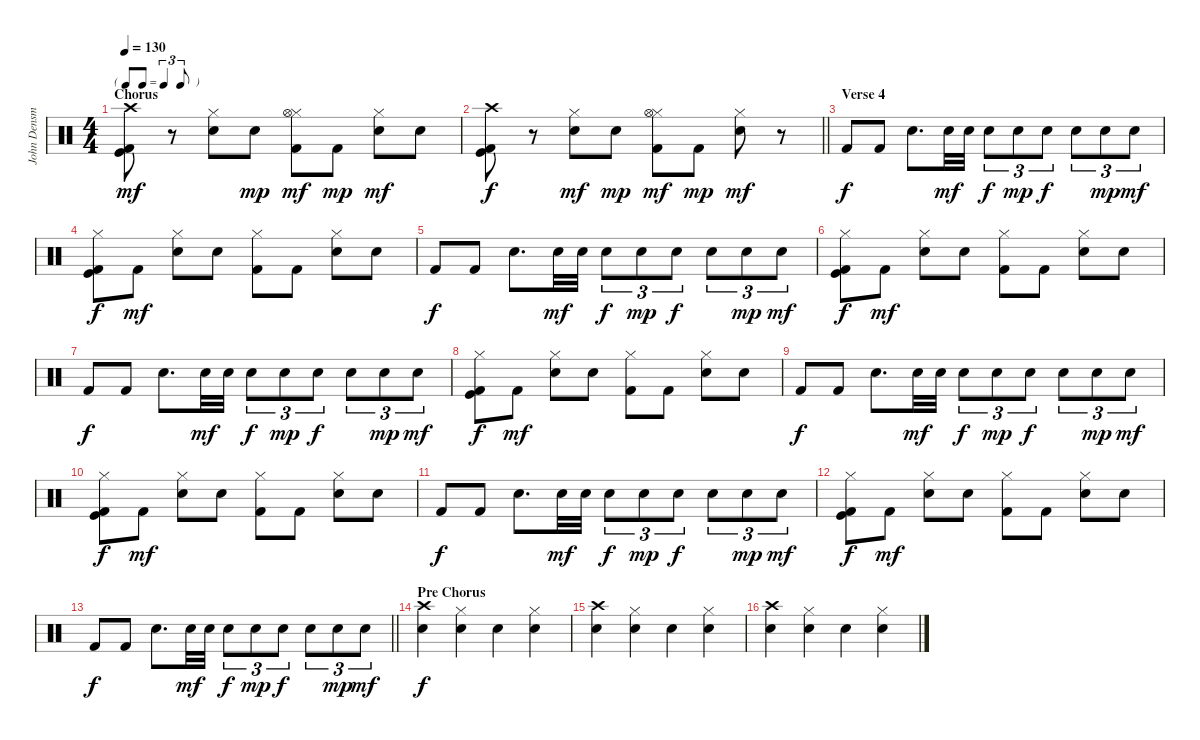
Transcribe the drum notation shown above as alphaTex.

\track ("John Densmore" "John Densm") {instrument percussion}
\staff {score}
\articulation defaults
\ts (4 4)
\tf triplet8th
\section ("" "Chorus")
\tempo 130
\clef neutral
\ks c
("Kick (hit) 2" "Kick (hit)" "Crash high (hit)").8{dy mf} r.8 ("Electric Snare (hit)" "Hi-Hat (closed)").8 "Electric Snare (hit)".8{dy mp} ("Kick (hit) 2" "Hi-Hat (closed)" "Hi-Hat (open)").8{dy mf} "Kick (hit) 2".8{dy mp} ("Electric Snare (hit)" "Hi-Hat (closed)").8{dy mf} "Electric Snare (hit)".8 |
\barLineRight lightlight
("Kick (hit) 2" "Kick (hit)" "Crash high (hit)").8{dy f} r.8 ("Electric Snare (hit)" "Hi-Hat (closed)").8{dy mf} "Electric Snare (hit)".8{dy mp} ("Kick (hit) 2" "Hi-Hat (closed)" "Hi-Hat (open)").8{dy mf} "Kick (hit) 2".8{dy mp} ("Electric Snare (hit)" "Hi-Hat (closed)").8{dy mf} r.8 |
\section ("" "Verse 4")
"Kick (hit) 2".8{dy f} "Kick (hit) 2".8 "Electric Snare (hit)".8{d} "Snare (hit) 2".32{dy mf} "Electric Snare (hit)".32 "Electric Snare (hit)".8{tu (3 2) dy f} "Electric Snare (hit)".8{tu (3 2) dy mp} "Electric Snare (hit)".8{tu (3 2) dy f} "Snare (hit) 2".8{tu (3 2)} "Snare (hit) 2".8{tu (3 2) dy mp} "Snare (hit) 2".8{tu (3 2) dy mf} |
("Kick (hit) 2" "Hi-Hat (closed)" "Kick (hit)").8{dy f} "Kick (hit) 2".8{dy mf} ("Electric Snare (hit)" "Hi-Hat (closed)").8 "Electric Snare (hit)".8 ("Kick (hit) 2" "Hi-Hat (closed)").8 "Kick (hit) 2".8 ("Electric Snare (hit)" "Hi-Hat (closed)").8 "Electric Snare (hit)".8 |
"Kick (hit) 2".8{dy f} "Kick (hit) 2".8 "Electric Snare (hit)".8{d} "Snare (hit) 2".32{dy mf} "Electric Snare (hit)".32 "Electric Snare (hit)".8{tu (3 2) dy f} "Electric Snare (hit)".8{tu (3 2) dy mp} "Electric Snare (hit)".8{tu (3 2) dy f} "Snare (hit) 2".8{tu (3 2)} "Snare (hit) 2".8{tu (3 2) dy mp} "Snare (hit) 2".8{tu (3 2) dy mf} |
("Kick (hit) 2" "Hi-Hat (closed)" "Kick (hit)").8{dy f} "Kick (hit) 2".8{dy mf} ("Electric Snare (hit)" "Hi-Hat (closed)").8 "Electric Snare (hit)".8 ("Kick (hit) 2" "Hi-Hat (closed)").8 "Kick (hit) 2".8 ("Electric Snare (hit)" "Hi-Hat (closed)").8 "Electric Snare (hit)".8 |
"Kick (hit) 2".8{dy f} "Kick (hit) 2".8 "Electric Snare (hit)".8{d} "Snare (hit) 2".32{dy mf} "Electric Snare (hit)".32 "Electric Snare (hit)".8{tu (3 2) dy f} "Electric Snare (hit)".8{tu (3 2) dy mp} "Electric Snare (hit)".8{tu (3 2) dy f} "Snare (hit) 2".8{tu (3 2)} "Snare (hit) 2".8{tu (3 2) dy mp} "Snare (hit) 2".8{tu (3 2) dy mf} |
("Kick (hit) 2" "Hi-Hat (closed)" "Kick (hit)").8{dy f} "Kick (hit) 2".8{dy mf} ("Electric Snare (hit)" "Hi-Hat (closed)").8 "Electric Snare (hit)".8 ("Kick (hit) 2" "Hi-Hat (closed)").8 "Kick (hit) 2".8 ("Electric Snare (hit)" "Hi-Hat (closed)").8 "Electric Snare (hit)".8 |
"Kick (hit) 2".8{dy f} "Kick (hit) 2".8 "Electric Snare (hit)".8{d} "Snare (hit) 2".32{dy mf} "Electric Snare (hit)".32 "Electric Snare (hit)".8{tu (3 2) dy f} "Electric Snare (hit)".8{tu (3 2) dy mp} "Electric Snare (hit)".8{tu (3 2) dy f} "Snare (hit) 2".8{tu (3 2)} "Snare (hit) 2".8{tu (3 2) dy mp} "Snare (hit) 2".8{tu (3 2) dy mf} |
("Kick (hit) 2" "Hi-Hat (closed)" "Kick (hit)").8{dy f} "Kick (hit) 2".8{dy mf} ("Electric Snare (hit)" "Hi-Hat (closed)").8 "Electric Snare (hit)".8 ("Kick (hit) 2" "Hi-Hat (closed)").8 "Kick (hit) 2".8 ("Electric Snare (hit)" "Hi-Hat (closed)").8 "Electric Snare (hit)".8 |
"Kick (hit) 2".8{dy f} "Kick (hit) 2".8 "Electric Snare (hit)".8{d} "Snare (hit) 2".32{dy mf} "Electric Snare (hit)".32 "Electric Snare (hit)".8{tu (3 2) dy f} "Electric Snare (hit)".8{tu (3 2) dy mp} "Electric Snare (hit)".8{tu (3 2) dy f} "Snare (hit) 2".8{tu (3 2)} "Snare (hit) 2".8{tu (3 2) dy mp} "Snare (hit) 2".8{tu (3 2) dy mf} |
("Kick (hit) 2" "Hi-Hat (closed)" "Kick (hit)").8{dy f} "Kick (hit) 2".8{dy mf} ("Electric Snare (hit)" "Hi-Hat (closed)").8 "Electric Snare (hit)".8 ("Kick (hit) 2" "Hi-Hat (closed)").8 "Kick (hit) 2".8 ("Electric Snare (hit)" "Hi-Hat (closed)").8 "Electric Snare (hit)".8 |
\barLineRight lightlight "Kick (hit) 2".8{dy f} "Kick (hit) 2".8 "Electric Snare (hit)".8{d} "Snare (hit) 2".32{dy mf} "Electric Snare (hit)".32 "Electric Snare (hit)".8{tu (3 2) dy f} "Electric Snare (hit)".8{tu (3 2) dy mp} "Electric Snare (hit)".8{tu (3 2) dy f} "Snare (hit) 2".8{tu (3 2)} "Snare (hit) 2".8{tu (3 2) dy mp} "Snare (hit) 2".8{tu (3 2) dy mf}
|
\section ("" "Pre Chorus")
("Electric Snare (hit)" "Crash high (hit)").4{dy f} ("Snare (hit) 2" "Hi-Hat (closed)").4 "Electric Snare (hit)".4 ("Snare (hit) 2" "Hi-Hat (closed)").4 |
("Electric Snare (hit)" "Crash high (hit)").4 ("Snare (hit) 2" "Hi-Hat (closed)").4 "Electric Snare (hit)".4 ("Snare (hit) 2" "Hi-Hat (closed)").4 |
("Electric Snare (hit)" "Crash high (hit)").4 ("Electric Snare (hit)" "Hi-Hat (closed)").4 "Electric Snare (hit)".4 ("Snare (hit) 2" "Hi-Hat (closed)").4
